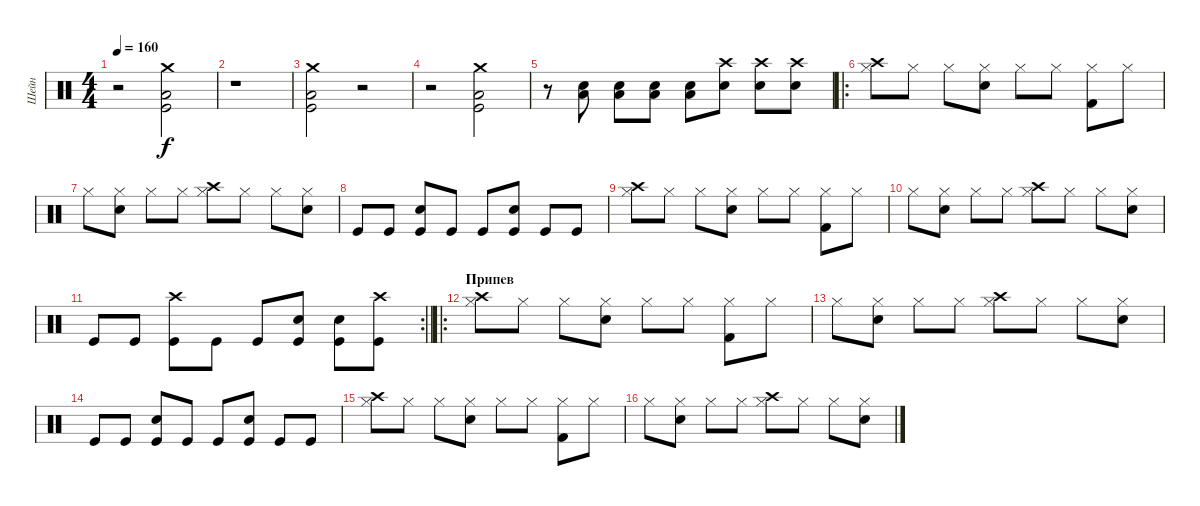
\track ("Шейн" "Шейн") {instrument percussion}
\staff {score}
\articulation defaults
\ts (4 4)
\tempo 160
\clef neutral
\ks c
r.2{dy f} ("Crash medium (hit)" "Kick (hit)" "Low Floor Tom (hit)").2 |
r.1 |
("Crash medium (hit)" "Kick (hit)" "Low Floor Tom (hit)").2 r.2 |
r.2 ("Crash medium (hit)" "Kick (hit)" "Low Floor Tom (hit)").2 |
r.8 ("Snare (hit) 2" "Low Floor Tom (hit)").8 ("Snare (hit) 2" "Low Floor Tom (hit)").8 ("Snare (hit) 2" "Low Floor Tom (hit)").8 ("Snare (hit) 2" "Low Floor Tom (hit)").8 ("Snare (hit) 2" "Crash high (hit)").8 ("Snare (hit) 2" "Crash high (hit)").8 ("Snare (hit) 2" "Crash high (hit)").8 |
\ro
("Hi-Hat (closed)" "Crash high (hit)").8 "Hi-Hat (closed)".8 "Hi-Hat (closed)".8 ("Hi-Hat (closed)" "Snare (hit) 2").8 "Hi-Hat (closed)".8 "Hi-Hat (closed)".8 ("Hi-Hat (closed)" "Kick (hit) 2").8 "Hi-Hat (closed)".8 |
"Hi-Hat (closed)".8 ("Hi-Hat (closed)" "Snare (hit) 2").8 "Hi-Hat (closed)".8 "Hi-Hat (closed)".8 ("Hi-Hat (closed)" "Crash high (hit)").8 "Hi-Hat (closed)".8 "Hi-Hat (closed)".8 ("Hi-Hat (closed)" "Snare (hit) 2").8 |
"Kick (hit)".8 "Kick (hit)".8 ("Kick (hit)" "Electric Snare (hit)").8 "Kick (hit)".8 "Kick (hit)".8 ("Kick (hit)" "Snare (hit) 2").8 "Kick (hit)".8 "Kick (hit)".8 |
("Hi-Hat (closed)" "Crash high (hit)").8 "Hi-Hat (closed)".8 "Hi-Hat (closed)".8 ("Hi-Hat (closed)" "Snare (hit) 2").8 "Hi-Hat (closed)".8 "Hi-Hat (closed)".8 ("Hi-Hat (closed)" "Kick (hit) 2").8 "Hi-Hat (closed)".8 |
"Hi-Hat (closed)".8 ("Hi-Hat (closed)" "Snare (hit) 2").8 "Hi-Hat (closed)".8 "Hi-Hat (closed)".8 ("Hi-Hat (closed)" "Crash high (hit)").8 "Hi-Hat (closed)".8 "Hi-Hat (closed)".8 ("Hi-Hat (closed)" "Snare (hit) 2").8 |
\rc 2
\barLineRight lightlight "Kick (hit)".8 "Kick (hit)".8
("Kick (hit)" "Crash high (hit)").8 "Kick (hit)".8 "Kick (hit)".8 ("Kick (hit)" "Snare (hit) 2").8 ("Kick (hit)" "Snare (hit) 2").8 ("Kick (hit)" "Crash high (hit)").8 |
\ro
\section ("" "Припев")
("Hi-Hat (closed)" "Crash high (hit)").8 "Hi-Hat (closed)".8 "Hi-Hat (closed)".8 ("Hi-Hat (closed)" "Snare (hit) 2").8 "Hi-Hat (closed)".8 "Hi-Hat (closed)".8 ("Hi-Hat (closed)" "Kick (hit) 2").8 "Hi-Hat (closed)".8 |
"Hi-Hat (closed)".8 ("Hi-Hat (closed)" "Snare (hit) 2").8 "Hi-Hat (closed)".8 "Hi-Hat (closed)".8 ("Hi-Hat (closed)" "Crash high (hit)").8 "Hi-Hat (closed)".8 "Hi-Hat (closed)".8 ("Hi-Hat (closed)" "Snare (hit) 2").8 |
"Kick (hit)".8 "Kick (hit)".8 ("Kick (hit)" "Electric Snare (hit)").8 "Kick (hit)".8 "Kick (hit)".8 ("Kick (hit)" "Snare (hit) 2").8 "Kick (hit)".8 "Kick (hit)".8 |
("Hi-Hat (closed)" "Crash high (hit)").8 "Hi-Hat (closed)".8 "Hi-Hat (closed)".8 ("Hi-Hat (closed)" "Snare (hit) 2").8 "Hi-Hat (closed)".8 "Hi-Hat (closed)".8 ("Hi-Hat (closed)" "Kick (hit) 2").8 "Hi-Hat (closed)".8 |
"Hi-Hat (closed)".8 ("Hi-Hat (closed)" "Snare (hit) 2").8 "Hi-Hat (closed)".8 "Hi-Hat (closed)".8 ("Hi-Hat (closed)" "Crash high (hit)").8 "Hi-Hat (closed)".8 "Hi-Hat (closed)".8 ("Hi-Hat (closed)" "Snare (hit) 2").8
